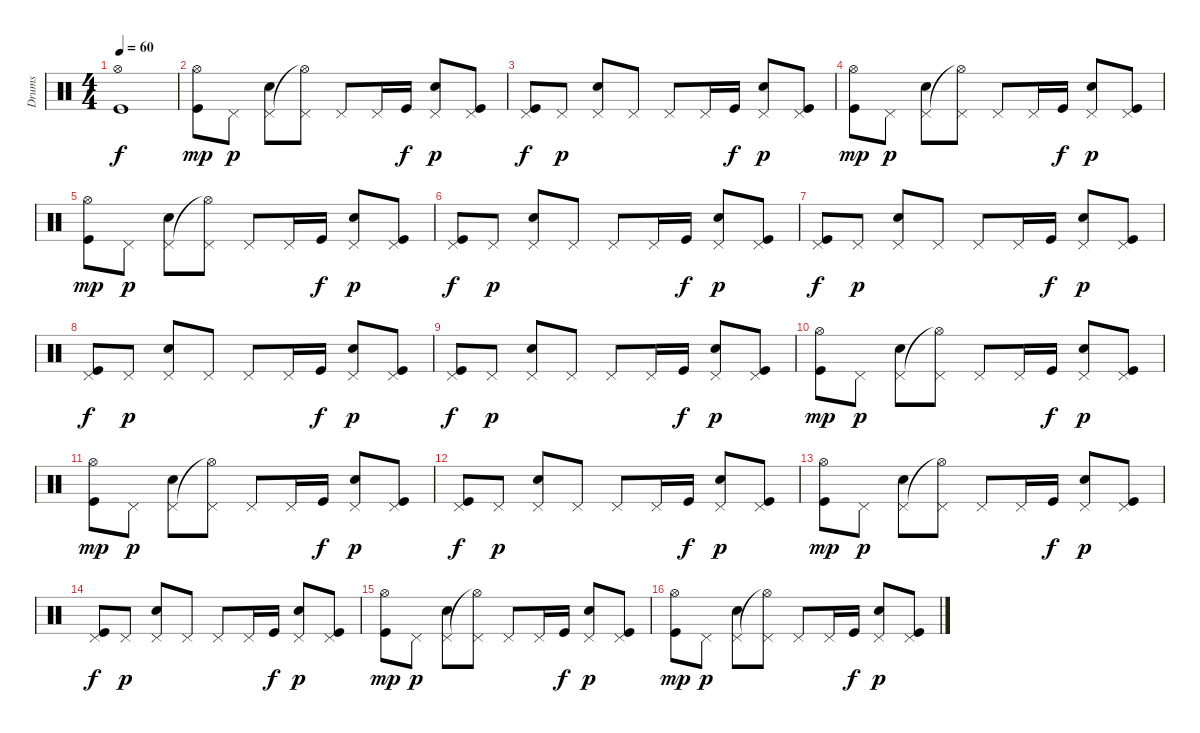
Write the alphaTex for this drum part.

\track ("Drums" "Drums") {instrument percussion}
\staff {score}
\articulation defaults
\ts (4 4)
\tempo 60
\clef neutral
\ks c
("Hi-Hat (open)" "Kick (hit)").1{dy f} |
("Hi-Hat (open)" "Kick (hit)").8{dy mp} "Pedal Hi-Hat (hit)".8{dy p} ("Pedal Hi-Hat (hit)" "Electric Snare (hit)").8 ("Hi-Hat (open)"{t} "Pedal Hi-Hat (hit)").8 "Pedal Hi-Hat (hit)".8 "Pedal Hi-Hat (hit)".16 "Kick (hit)".16{dy f} ("Pedal Hi-Hat (hit)" "Electric Snare (hit)").8{dy p} ("Pedal Hi-Hat (hit)" "Kick (hit)").8 |
("Pedal Hi-Hat (hit)" "Kick (hit)").8{dy f} "Pedal Hi-Hat (hit)".8{dy p} ("Pedal Hi-Hat (hit)" "Electric Snare (hit)").8 "Pedal Hi-Hat (hit)".8 "Pedal Hi-Hat (hit)".8 "Pedal Hi-Hat (hit)".16 "Kick (hit)".16{dy f} ("Pedal Hi-Hat (hit)" "Electric Snare (hit)").8{dy p} ("Pedal Hi-Hat (hit)" "Kick (hit)").8 |
("Hi-Hat (open)" "Kick (hit)").8{dy mp} "Pedal Hi-Hat (hit)".8{dy p} ("Pedal Hi-Hat (hit)" "Electric Snare (hit)").8 ("Hi-Hat (open)"{t} "Pedal Hi-Hat (hit)").8 "Pedal Hi-Hat (hit)".8 "Pedal Hi-Hat (hit)".16 "Kick (hit)".16{dy f} ("Pedal Hi-Hat (hit)" "Electric Snare (hit)").8{dy p} ("Pedal Hi-Hat (hit)" "Kick (hit)").8 |
("Hi-Hat (open)" "Kick (hit)").8{dy mp} "Pedal Hi-Hat (hit)".8{dy p} ("Pedal Hi-Hat (hit)" "Electric Snare (hit)").8 ("Hi-Hat (open)"{t} "Pedal Hi-Hat (hit)").8 "Pedal Hi-Hat (hit)".8 "Pedal Hi-Hat (hit)".16 "Kick (hit)".16{dy f} ("Pedal Hi-Hat (hit)" "Electric Snare (hit)").8{dy p} ("Pedal Hi-Hat (hit)" "Kick (hit)").8 |
("Pedal Hi-Hat (hit)" "Kick (hit)").8{dy f} "Pedal Hi-Hat (hit)".8{dy p} ("Pedal Hi-Hat (hit)" "Electric Snare (hit)").8 "Pedal Hi-Hat (hit)".8 "Pedal Hi-Hat (hit)".8 "Pedal Hi-Hat (hit)".16 "Kick (hit)".16{dy f} ("Pedal Hi-Hat (hit)" "Electric Snare (hit)").8{dy p} ("Pedal Hi-Hat (hit)" "Kick (hit)").8 |
("Pedal Hi-Hat (hit)" "Kick (hit)").8{dy f} "Pedal Hi-Hat (hit)".8{dy p} ("Pedal Hi-Hat (hit)" "Electric Snare (hit)").8 "Pedal Hi-Hat (hit)".8 "Pedal Hi-Hat (hit)".8 "Pedal Hi-Hat (hit)".16 "Kick (hit)".16{dy f} ("Pedal Hi-Hat (hit)" "Electric Snare (hit)").8{dy p} ("Pedal Hi-Hat (hit)" "Kick (hit)").8 |
("Pedal Hi-Hat (hit)" "Kick (hit)").8{dy f} "Pedal Hi-Hat (hit)".8{dy p} ("Pedal Hi-Hat (hit)" "Electric Snare (hit)").8 "Pedal Hi-Hat (hit)".8 "Pedal Hi-Hat (hit)".8 "Pedal Hi-Hat (hit)".16 "Kick (hit)".16{dy f} ("Pedal Hi-Hat (hit)" "Electric Snare (hit)").8{dy p} ("Pedal Hi-Hat (hit)" "Kick (hit)").8 |
("Pedal Hi-Hat (hit)" "Kick (hit)").8{dy f} "Pedal Hi-Hat (hit)".8{dy p} ("Pedal Hi-Hat (hit)" "Electric Snare (hit)").8 "Pedal Hi-Hat (hit)".8 "Pedal Hi-Hat (hit)".8 "Pedal Hi-Hat (hit)".16 "Kick (hit)".16{dy f} ("Pedal Hi-Hat (hit)" "Electric Snare (hit)").8{dy p} ("Pedal Hi-Hat (hit)" "Kick (hit)").8 |
("Hi-Hat (open)" "Kick (hit)").8{dy mp} "Pedal Hi-Hat (hit)".8{dy p} ("Pedal Hi-Hat (hit)" "Electric Snare (hit)").8 ("Hi-Hat (open)"{t} "Pedal Hi-Hat (hit)").8 "Pedal Hi-Hat (hit)".8 "Pedal Hi-Hat (hit)".16 "Kick (hit)".16{dy f} ("Pedal Hi-Hat (hit)" "Electric Snare (hit)").8{dy p} ("Pedal Hi-Hat (hit)" "Kick (hit)").8 |
("Hi-Hat (open)" "Kick (hit)").8{dy mp} "Pedal Hi-Hat (hit)".8{dy p} ("Pedal Hi-Hat (hit)" "Electric Snare (hit)").8 ("Hi-Hat (open)"{t} "Pedal Hi-Hat (hit)").8 "Pedal Hi-Hat (hit)".8 "Pedal Hi-Hat (hit)".16 "Kick (hit)".16{dy f} ("Pedal Hi-Hat (hit)" "Electric Snare (hit)").8{dy p} ("Pedal Hi-Hat (hit)" "Kick (hit)").8 |
("Pedal Hi-Hat (hit)" "Kick (hit)").8{dy f} "Pedal Hi-Hat (hit)".8{dy p} ("Pedal Hi-Hat (hit)" "Electric Snare (hit)").8 "Pedal Hi-Hat (hit)".8 "Pedal Hi-Hat (hit)".8 "Pedal Hi-Hat (hit)".16 "Kick (hit)".16{dy f} ("Pedal Hi-Hat (hit)" "Electric Snare (hit)").8{dy p} ("Pedal Hi-Hat (hit)" "Kick (hit)").8 |
("Hi-Hat (open)" "Kick (hit)").8{dy mp} "Pedal Hi-Hat (hit)".8{dy p} ("Pedal Hi-Hat (hit)" "Electric Snare (hit)").8 ("Hi-Hat (open)"{t} "Pedal Hi-Hat (hit)").8 "Pedal Hi-Hat (hit)".8 "Pedal Hi-Hat (hit)".16 "Kick (hit)".16{dy f} ("Pedal Hi-Hat (hit)" "Electric Snare (hit)").8{dy p} ("Pedal Hi-Hat (hit)" "Kick (hit)").8 |
("Pedal Hi-Hat (hit)" "Kick (hit)").8{dy f} "Pedal Hi-Hat (hit)".8{dy p} ("Pedal Hi-Hat (hit)" "Electric Snare (hit)").8 "Pedal Hi-Hat (hit)".8 "Pedal Hi-Hat (hit)".8 "Pedal Hi-Hat (hit)".16 "Kick (hit)".16{dy f} ("Pedal Hi-Hat (hit)" "Electric Snare (hit)").8{dy p} ("Pedal Hi-Hat (hit)" "Kick (hit)").8 |
("Hi-Hat (open)" "Kick (hit)").8{dy mp} "Pedal Hi-Hat (hit)".8{dy p} ("Pedal Hi-Hat (hit)" "Electric Snare (hit)").8 ("Hi-Hat (open)"{t} "Pedal Hi-Hat (hit)").8 "Pedal Hi-Hat (hit)".8 "Pedal Hi-Hat (hit)".16 "Kick (hit)".16{dy f} ("Pedal Hi-Hat (hit)" "Electric Snare (hit)").8{dy p} ("Pedal Hi-Hat (hit)" "Kick (hit)").8 |
("Hi-Hat (open)" "Kick (hit)").8{dy mp} "Pedal Hi-Hat (hit)".8{dy p} ("Pedal Hi-Hat (hit)" "Electric Snare (hit)").8 ("Hi-Hat (open)"{t} "Pedal Hi-Hat (hit)").8 "Pedal Hi-Hat (hit)".8 "Pedal Hi-Hat (hit)".16 "Kick (hit)".16{dy f} ("Pedal Hi-Hat (hit)" "Electric Snare (hit)").8{dy p} ("Pedal Hi-Hat (hit)" "Kick (hit)").8
